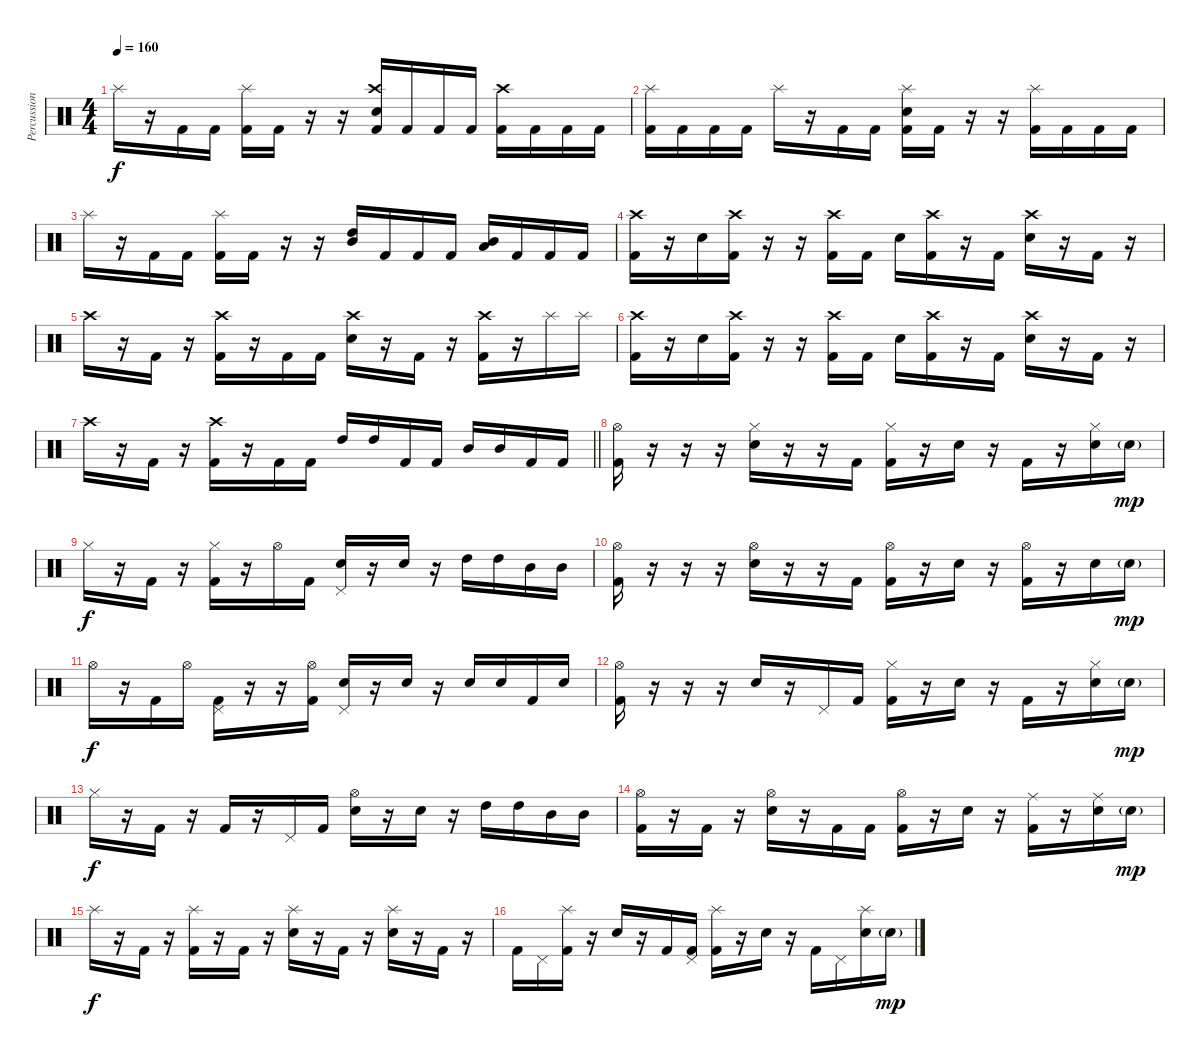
\track ("Percussion" "Percussion") {instrument percussion}
\staff {score}
\articulation defaults
\ts (4 4)
\tempo 160
\clef neutral
\ks c "Splash (hit)".16{dy f}
r.16 "Kick (hit) 2".16 "Kick (hit) 2".16 ("Splash (hit)" "Kick (hit) 2").16 "Kick (hit) 2".16 r.16 r.16 ("Crash high (hit)" "Electric Snare (hit)" "Kick (hit) 2").16 "Kick (hit) 2".16 "Kick (hit) 2".16 "Kick (hit) 2".16 ("Crash high (hit)" "Kick (hit) 2").16 "Kick (hit) 2".16 "Kick (hit) 2".16 "Kick (hit) 2".16 |
("Splash (hit)" "Kick (hit) 2").16 "Kick (hit) 2".16 "Kick (hit) 2".16 "Kick (hit) 2".16 "Splash (hit)".16 r.16 "Kick (hit) 2".16 "Kick (hit) 2".16 ("Splash (hit)" "Electric Snare (hit)" "Kick (hit) 2").16 "Kick (hit) 2".16 r.16 r.16 ("Splash (hit)" "Kick (hit) 2").16 "Kick (hit) 2".16 "Kick (hit) 2".16 "Kick (hit) 2".16 |
"Splash (hit)".16 r.16 "Kick (hit) 2".16 "Kick (hit) 2".16 ("Splash (hit)" "Kick (hit) 2").16 "Kick (hit) 2".16 r.16 r.16 ("High Tom (hit)" "Mid Tom (hit)").16 "Kick (hit) 2".16 "Kick (hit) 2".16 "Kick (hit) 2".16 ("Mid Tom (hit)" "Low Tom (hit)").16 "Kick (hit) 2".16 "Kick (hit) 2".16 "Kick (hit) 2".16 |
("Crash high (hit)" "Kick (hit) 2").16 r.16 "Electric Snare (hit)".16 ("Crash high (hit)" "Kick (hit) 2").16 r.16 r.16 ("Crash high (hit)" "Kick (hit) 2").16 "Kick (hit) 2".16 "Electric Snare (hit)".16 ("Crash high (hit)" "Kick (hit) 2").16 r.16 "Kick (hit) 2".16 ("Crash high (hit)" "Electric Snare (hit)").16 r.16 "Kick (hit) 2".16 r.16 |
"Crash high (hit)".16 r.16 "Kick (hit) 2".16 r.16 ("Crash high (hit)" "Kick (hit) 2").16 r.16 "Kick (hit) 2".16 "Kick (hit) 2".16 ("Crash high (hit)" "Electric Snare (hit)").16 r.16 "Kick (hit) 2".16 r.16 ("Crash high (hit)" "Kick (hit) 2").16 r.16 "Splash (hit)".16 "Splash (hit)".16 |
("Crash high (hit)" "Kick (hit) 2").16 r.16 "Electric Snare (hit)".16 ("Crash high (hit)" "Kick (hit) 2").16 r.16 r.16 ("Crash high (hit)" "Kick (hit) 2").16 "Kick (hit) 2".16 "Electric Snare (hit)".16 ("Crash high (hit)" "Kick (hit) 2").16 r.16 "Kick (hit) 2".16 ("Crash high (hit)" "Electric Snare (hit)").16 r.16 "Kick (hit) 2".16 r.16 |
\barLineRight lightlight "Crash high (hit)".16
r.16 "Kick (hit) 2".16 r.16 ("Crash high (hit)" "Kick (hit) 2").16 r.16 "Kick (hit) 2".16 "Kick (hit) 2".16 "High Tom (hit)".16 "High Tom (hit)".16 "Kick (hit) 2".16 "Kick (hit) 2".16 "Mid Tom (hit)".16 "Mid Tom (hit)".16 "Kick (hit) 2".16 "Kick (hit) 2".16 |
("Hi-Hat (open)" "Kick (hit) 2").16{volume 9} r.16 r.16 r.16 ("Hi-Hat (closed)" "Electric Snare (hit)").16 r.16 r.16 "Kick (hit) 2".16 ("Hi-Hat (closed)" "Kick (hit) 2").16 r.16 "Electric Snare (hit)".16 r.16 "Kick (hit) 2".16 r.16 ("Hi-Hat (closed)" "Electric Snare (hit)").16 "Electric Snare (hit)"{g}.16{dy mp} |
"Hi-Hat (closed)".16{dy f} r.16 "Kick (hit) 2".16 r.16 ("Hi-Hat (closed)" "Kick (hit) 2").16 r.16 "Hi-Hat (open)".16 "Kick (hit) 2".16 ("Pedal Hi-Hat (hit)" "Electric Snare (hit)").16 r.16 "Electric Snare (hit)".16 r.16 "High Tom (hit)".16 "High Tom (hit)".16 "Mid Tom (hit)".16 "Mid Tom (hit)".16 |
("Hi-Hat (open)" "Kick (hit) 2").16 r.16 r.16 r.16 ("Hi-Hat (open)" "Electric Snare (hit)").16 r.16 r.16 "Kick (hit) 2".16 ("Hi-Hat (open)" "Kick (hit) 2").16 r.16 "Electric Snare (hit)".16 r.16 ("Hi-Hat (open)" "Kick (hit) 2").16 r.16 "Electric Snare (hit)".16 "Electric Snare (hit)"{g}.16{dy mp} |
"Hi-Hat (open)".16{dy f} r.16 "Kick (hit) 2".16 "Hi-Hat (open)".16 ("Pedal Hi-Hat (hit)" "Kick (hit) 2").16 r.16 r.16 ("Hi-Hat (open)" "Kick (hit) 2").16 ("Pedal Hi-Hat (hit)" "Electric Snare (hit)").16 r.16 "Electric Snare (hit)".16 r.16 "Electric Snare (hit)".16 "Electric Snare (hit)".16 "Kick (hit) 2".16 "Electric Snare (hit)".16 |
("Hi-Hat (open)" "Kick (hit) 2").16{volume 10} r.16 r.16 r.16 "Electric Snare (hit)".16 r.16 "Pedal Hi-Hat (hit)".16 "Kick (hit) 2".16 ("Hi-Hat (closed)" "Kick (hit) 2").16 r.16 "Electric Snare (hit)".16 r.16 "Kick (hit) 2".16 r.16 ("Hi-Hat (closed)" "Electric Snare (hit)").16 "Electric Snare (hit)"{g}.16{dy mp} |
"Hi-Hat (closed)".16{dy f} r.16 "Kick (hit) 2".16 r.16 "Kick (hit) 2".16 r.16 "Pedal Hi-Hat (hit)".16 "Kick (hit) 2".16 ("Hi-Hat (open)" "Electric Snare (hit)").16 r.16 "Electric Snare (hit)".16 r.16 "High Tom (hit)".16 "High Tom (hit)".16 "Mid Tom (hit)".16 "Mid Tom (hit)".16 |
("Hi-Hat (open)" "Kick (hit) 2").16 r.16 "Kick (hit) 2".16 r.16 ("Hi-Hat (open)" "Electric Snare (hit)").16 r.16 "Kick (hit) 2".16 "Kick (hit) 2".16 ("Hi-Hat (open)" "Kick (hit) 2").16 r.16 "Electric Snare (hit)".16 r.16 ("Ride (middle)" "Kick (hit) 2").16 r.16 ("Ride (middle)" "Electric Snare (hit)").16 "Electric Snare (hit)"{g}.16{dy mp} |
"Splash (hit)".16{dy f} r.16 "Kick (hit) 2".16 r.16 ("Splash (hit)" "Kick (hit) 2").16 r.16 "Kick (hit) 2".16 r.16 ("Splash (hit)" "Electric Snare (hit)").16 r.16 "Kick (hit) 2".16 r.16 ("Splash (hit)" "Electric Snare (hit)").16 r.16 "Kick (hit) 2".16 r.16 |
"Kick (hit) 2".16 "Pedal Hi-Hat (hit)".16 ("Splash (hit)" "Kick (hit) 2").16 r.16 "Electric Snare (hit)".16 r.16 "Kick (hit) 2".16 ("Pedal Hi-Hat (hit)" "Kick (hit) 2").16 ("Splash (hit)" "Kick (hit) 2").16 r.16 "Electric Snare (hit)".16 r.16 "Kick (hit) 2".16 "Pedal Hi-Hat (hit)".16 ("Splash (hit)" "Electric Snare (hit)").16 "Electric Snare (hit)"{g}.16{dy mp}
